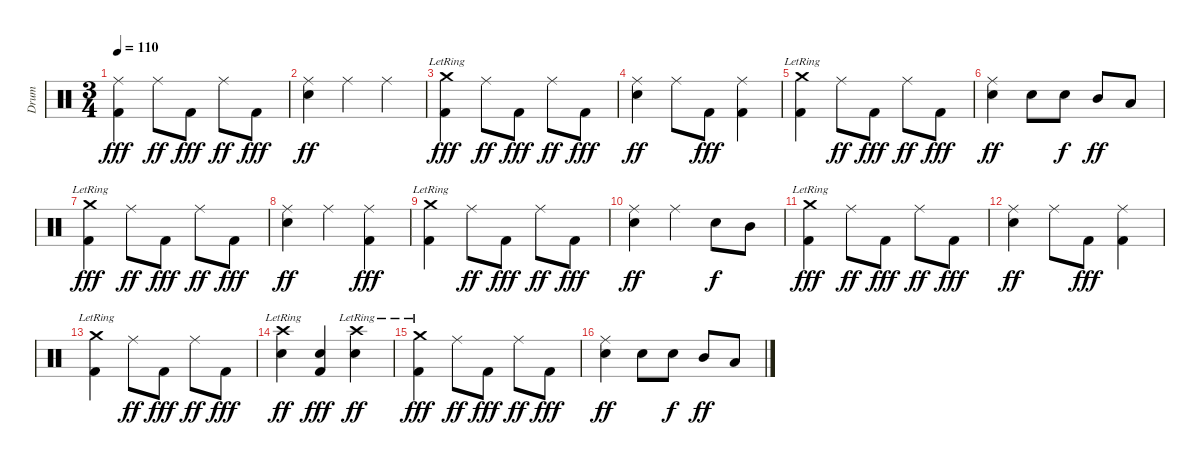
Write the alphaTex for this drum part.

\track ("Drum" "Drum") {instrument percussion}
\staff {score}
\articulation defaults
\ts (3 4)
\tempo 110
\clef neutral
\ks c
("Ride (middle)" "Kick (hit) 2").4{dy fff} "Ride (middle)".8{dy ff} "Kick (hit) 2".8{dy fff} "Ride (middle)".8{dy ff} "Kick (hit) 2".8{dy fff} |
("Ride (middle)" "Snare (hit) 2").4{dy ff} "Ride (middle)".4 "Ride (middle)".4 |
("Crash medium (hit)"{lr} "Kick (hit) 2").4{dy fff} "Ride (middle)".8{dy ff} "Kick (hit) 2".8{dy fff} "Ride (middle)".8{dy ff} "Kick (hit) 2".8{dy fff} |
("Ride (middle)" "Snare (hit) 2").4{dy ff} "Ride (middle)".8 "Kick (hit) 2".8{dy fff} ("Ride (middle)" "Kick (hit) 2").4 |
("Crash medium (hit)"{lr} "Kick (hit) 2").4 "Ride (middle)".8{dy ff} "Kick (hit) 2".8{dy fff} "Ride (middle)".8{dy ff} "Kick (hit) 2".8{dy fff} |
("Ride (middle)" "Snare (hit) 2").4{dy ff} "Snare (hit) 2".8 "Snare (hit) 2".8{dy f} "Mid Tom (hit)".8{dy ff} "Low Tom (hit)".8 |
("Crash medium (hit)"{lr} "Kick (hit) 2").4{dy fff} "Ride (middle)".8{dy ff} "Kick (hit) 2".8{dy fff} "Ride (middle)".8{dy ff} "Kick (hit) 2".8{dy fff} |
("Ride (middle)" "Snare (hit) 2").4{dy ff} "Ride (middle)".4 ("Ride (middle)" "Kick (hit) 2").4{dy fff} |
("Crash medium (hit)"{lr} "Kick (hit) 2").4 "Ride (middle)".8{dy ff} "Kick (hit) 2".8{dy fff} "Ride (middle)".8{dy ff} "Kick (hit) 2".8{dy fff} |
("Ride (middle)" "Snare (hit) 2").4{dy ff} "Ride (middle)".4 "Snare (hit) 2".8{dy f} "Mid Tom (hit)".8 |
("Crash medium (hit)"{lr} "Kick (hit) 2").4{dy fff} "Ride (middle)".8{dy ff} "Kick (hit) 2".8{dy fff} "Ride (middle)".8{dy ff} "Kick (hit) 2".8{dy fff} |
("Ride (middle)" "Snare (hit) 2").4{dy ff} "Ride (middle)".8 "Kick (hit) 2".8{dy fff} ("Ride (middle)" "Kick (hit) 2").4 |
("Crash medium (hit)"{lr} "Kick (hit) 2").4 "Ride (middle)".8{dy ff} "Kick (hit) 2".8{dy fff} "Ride (middle)".8{dy ff} "Kick (hit) 2".8{dy fff} |
("Crash high (hit)"{lr} "Snare (hit) 2").4{dy ff} ("Snare (hit) 2" "Kick (hit) 2").4{dy fff} ("Crash high (hit)"{lr} "Snare (hit) 2").4{dy ff} |
("Crash medium (hit)"{lr} "Kick (hit) 2").4{dy fff} "Ride (middle)".8{dy ff} "Kick (hit) 2".8{dy fff} "Ride (middle)".8{dy ff} "Kick (hit) 2".8{dy fff} |
("Ride (middle)" "Snare (hit) 2").4{dy ff} "Snare (hit) 2".8 "Snare (hit) 2".8{dy f} "Mid Tom (hit)".8{dy ff} "Low Tom (hit)".8
